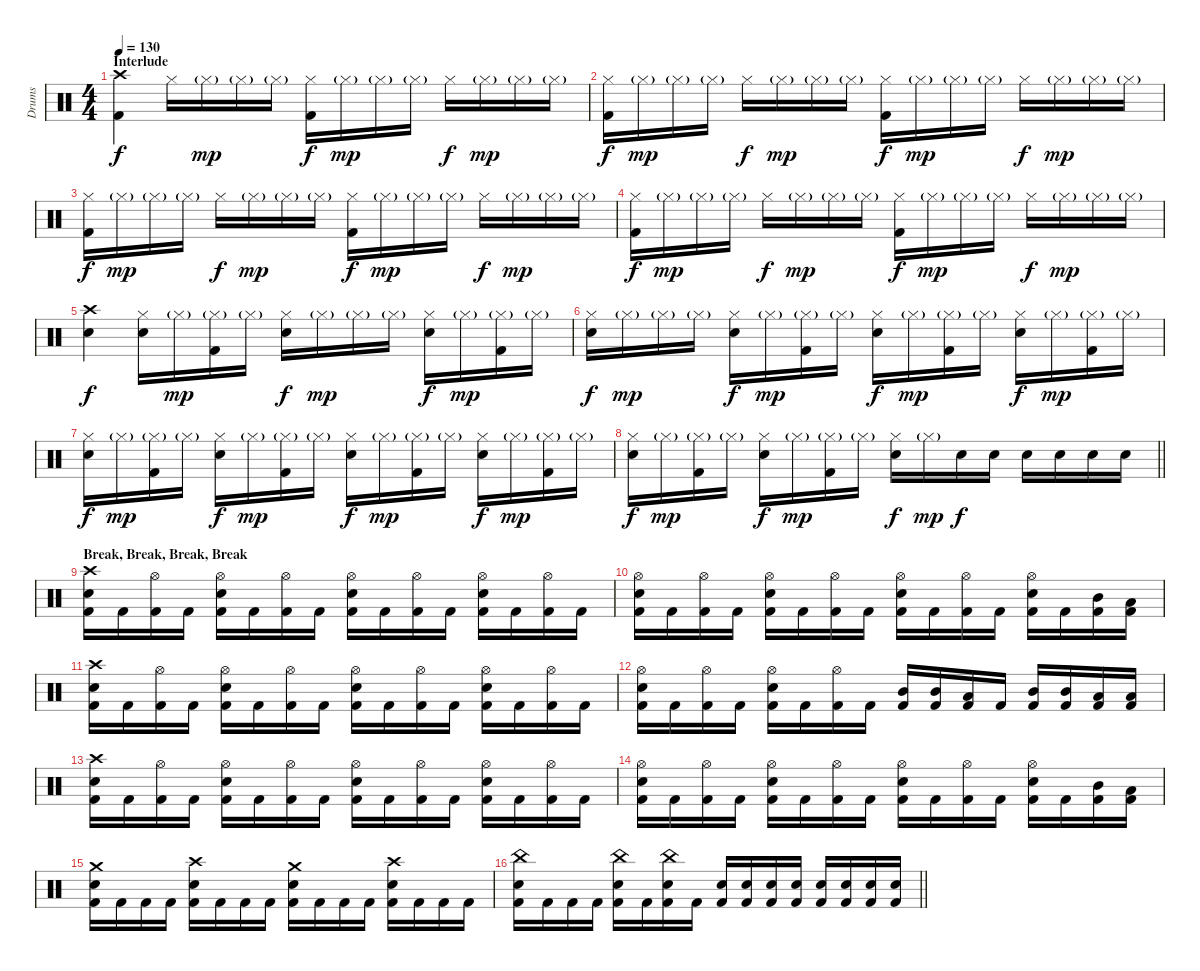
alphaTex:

\track ("Drums" "Drums") {instrument percussion}
\staff {score}
\articulation defaults
\ts (4 4)
\section ("" "Interlude")
\tempo 130
\clef neutral
\ks c
("Crash high (hit)" "Kick (hit) 2").4{dy f} "Hi-Hat (closed)".16 "Hi-Hat (closed)"{g}.16{dy mp} "Hi-Hat (closed)"{g}.16 "Hi-Hat (closed)"{g}.16 ("Hi-Hat (closed)" "Kick (hit) 2").16{dy f} "Hi-Hat (closed)"{g}.16{dy mp} "Hi-Hat (closed)"{g}.16 "Hi-Hat (closed)"{g}.16 "Hi-Hat (closed)".16{dy f} "Hi-Hat (closed)"{g}.16{dy mp} "Hi-Hat (closed)"{g}.16 "Hi-Hat (closed)"{g}.16 |
("Hi-Hat (closed)" "Kick (hit) 2").16{dy f} "Hi-Hat (closed)"{g}.16{dy mp} "Hi-Hat (closed)"{g}.16 "Hi-Hat (closed)"{g}.16 "Hi-Hat (closed)".16{dy f} "Hi-Hat (closed)"{g}.16{dy mp} "Hi-Hat (closed)"{g}.16 "Hi-Hat (closed)"{g}.16 ("Hi-Hat (closed)" "Kick (hit) 2").16{dy f} "Hi-Hat (closed)"{g}.16{dy mp} "Hi-Hat (closed)"{g}.16 "Hi-Hat (closed)"{g}.16 "Hi-Hat (closed)".16{dy f} "Hi-Hat (closed)"{g}.16{dy mp} "Hi-Hat (closed)"{g}.16 "Hi-Hat (closed)"{g}.16 |
("Hi-Hat (closed)" "Kick (hit) 2").16{dy f} "Hi-Hat (closed)"{g}.16{dy mp} "Hi-Hat (closed)"{g}.16 "Hi-Hat (closed)"{g}.16 "Hi-Hat (closed)".16{dy f} "Hi-Hat (closed)"{g}.16{dy mp} "Hi-Hat (closed)"{g}.16 "Hi-Hat (closed)"{g}.16 ("Hi-Hat (closed)" "Kick (hit) 2").16{dy f} "Hi-Hat (closed)"{g}.16{dy mp} "Hi-Hat (closed)"{g}.16 "Hi-Hat (closed)"{g}.16 "Hi-Hat (closed)".16{dy f} "Hi-Hat (closed)"{g}.16{dy mp} "Hi-Hat (closed)"{g}.16 "Hi-Hat (closed)"{g}.16 |
("Hi-Hat (closed)" "Kick (hit) 2").16{dy f} "Hi-Hat (closed)"{g}.16{dy mp} "Hi-Hat (closed)"{g}.16 "Hi-Hat (closed)"{g}.16 "Hi-Hat (closed)".16{dy f} "Hi-Hat (closed)"{g}.16{dy mp} "Hi-Hat (closed)"{g}.16 "Hi-Hat (closed)"{g}.16 ("Hi-Hat (closed)" "Kick (hit) 2").16{dy f} "Hi-Hat (closed)"{g}.16{dy mp} "Hi-Hat (closed)"{g}.16 "Hi-Hat (closed)"{g}.16 "Hi-Hat (closed)".16{dy f} "Hi-Hat (closed)"{g}.16{dy mp} "Hi-Hat (closed)"{g}.16 "Hi-Hat (closed)"{g}.16 |
("Crash high (hit)" "Snare (hit) 2").4{dy f} ("Hi-Hat (closed)" "Snare (hit) 2").16 "Hi-Hat (closed)"{g}.16{dy mp} ("Hi-Hat (closed)"{g} "Kick (hit) 2").16 "Hi-Hat (closed)"{g}.16 ("Hi-Hat (closed)" "Snare (hit) 2").16{dy f} "Hi-Hat (closed)"{g}.16{dy mp} "Hi-Hat (closed)"{g}.16 "Hi-Hat (closed)"{g}.16 ("Hi-Hat (closed)" "Snare (hit) 2").16{dy f} "Hi-Hat (closed)"{g}.16{dy mp} ("Hi-Hat (closed)"{g} "Kick (hit) 2").16 "Hi-Hat (closed)"{g}.16 |
("Hi-Hat (closed)" "Snare (hit) 2").16{dy f} "Hi-Hat (closed)"{g}.16{dy mp} "Hi-Hat (closed)"{g}.16 "Hi-Hat (closed)"{g}.16 ("Hi-Hat (closed)" "Snare (hit) 2").16{dy f} "Hi-Hat (closed)"{g}.16{dy mp} ("Hi-Hat (closed)"{g} "Kick (hit) 2").16 "Hi-Hat (closed)"{g}.16 ("Hi-Hat (closed)" "Snare (hit) 2").16{dy f} "Hi-Hat (closed)"{g}.16{dy mp} ("Hi-Hat (closed)"{g} "Kick (hit) 2").16 "Hi-Hat (closed)"{g}.16 ("Hi-Hat (closed)" "Snare (hit) 2").16{dy f} "Hi-Hat (closed)"{g}.16{dy mp} ("Hi-Hat (closed)"{g} "Kick (hit) 2").16 "Hi-Hat (closed)"{g}.16 |
("Hi-Hat (closed)" "Snare (hit) 2").16{dy f} "Hi-Hat (closed)"{g}.16{dy mp} ("Hi-Hat (closed)"{g} "Kick (hit) 2").16 "Hi-Hat (closed)"{g}.16 ("Hi-Hat (closed)" "Snare (hit) 2").16{dy f} "Hi-Hat (closed)"{g}.16{dy mp} ("Hi-Hat (closed)"{g} "Kick (hit) 2").16 "Hi-Hat (closed)"{g}.16 ("Hi-Hat (closed)" "Snare (hit) 2").16{dy f} "Hi-Hat (closed)"{g}.16{dy mp} ("Hi-Hat (closed)"{g} "Kick (hit) 2").16 "Hi-Hat (closed)"{g}.16 ("Hi-Hat (closed)" "Snare (hit) 2").16{dy f} "Hi-Hat (closed)"{g}.16{dy mp} ("Hi-Hat (closed)"{g} "Kick (hit) 2").16 "Hi-Hat (closed)"{g}.16 |
\barLineRight lightlight
("Hi-Hat (closed)" "Snare (hit) 2").16{dy f} "Hi-Hat (closed)"{g}.16{dy mp} ("Hi-Hat (closed)"{g} "Kick (hit) 2").16 "Hi-Hat (closed)"{g}.16 ("Hi-Hat (closed)" "Snare (hit) 2").16{dy f} "Hi-Hat (closed)"{g}.16{dy mp} ("Hi-Hat (closed)"{g} "Kick (hit) 2").16 "Hi-Hat (closed)"{g}.16 ("Hi-Hat (closed)" "Snare (hit) 2").16{dy f} "Hi-Hat (closed)"{g}.16{dy mp} "Snare (hit) 2".16{dy f} "Snare (hit) 2".16 "Snare (hit) 2".16 "Snare (hit) 2".16 "Snare (hit) 2".16 "Snare (hit) 2".16 |
\section ("" "Break, Break, Break, Break")
("Crash high (hit)" "Snare (hit) 2" "Kick (hit) 2").16 "Kick (hit) 2".16 ("Hi-Hat (open)" "Kick (hit) 2").16 "Kick (hit) 2".16 ("Hi-Hat (open)" "Snare (hit) 2" "Kick (hit) 2").16 "Kick (hit) 2".16 ("Hi-Hat (open)" "Kick (hit) 2").16 "Kick (hit) 2".16 ("Hi-Hat (open)" "Snare (hit) 2" "Kick (hit) 2").16 "Kick (hit) 2".16 ("Hi-Hat (open)" "Kick (hit) 2").16 "Kick (hit) 2".16 ("Hi-Hat (open)" "Snare (hit) 2" "Kick (hit) 2").16 "Kick (hit) 2".16 ("Hi-Hat (open)" "Kick (hit) 2").16 "Kick (hit) 2".16 |
("Hi-Hat (open)" "Snare (hit) 2" "Kick (hit) 2").16 "Kick (hit) 2".16 ("Hi-Hat (open)" "Kick (hit) 2").16 "Kick (hit) 2".16 ("Hi-Hat (open)" "Snare (hit) 2" "Kick (hit) 2").16 "Kick (hit) 2".16 ("Hi-Hat (open)" "Kick (hit) 2").16 "Kick (hit) 2".16 ("Hi-Hat (open)" "Snare (hit) 2" "Kick (hit) 2").16 "Kick (hit) 2".16 ("Hi-Hat (open)" "Kick (hit) 2").16 "Kick (hit) 2".16 ("Hi-Hat (open)" "Snare (hit) 2" "Kick (hit) 2").16 "Kick (hit) 2".16 ("Mid Tom (hit)" "Kick (hit) 2").16 ("Low Tom (hit)" "Kick (hit) 2").16 |
("Crash high (hit)" "Snare (hit) 2" "Kick (hit) 2").16 "Kick (hit) 2".16 ("Hi-Hat (open)" "Kick (hit) 2").16 "Kick (hit) 2".16 ("Hi-Hat (open)" "Snare (hit) 2" "Kick (hit) 2").16 "Kick (hit) 2".16 ("Hi-Hat (open)" "Kick (hit) 2").16 "Kick (hit) 2".16 ("Hi-Hat (open)" "Snare (hit) 2" "Kick (hit) 2").16 "Kick (hit) 2".16 ("Hi-Hat (open)" "Kick (hit) 2").16 "Kick (hit) 2".16 ("Hi-Hat (open)" "Snare (hit) 2" "Kick (hit) 2").16 "Kick (hit) 2".16 ("Hi-Hat (open)" "Kick (hit) 2").16 "Kick (hit) 2".16 |
("Hi-Hat (open)" "Snare (hit) 2" "Kick (hit) 2").16 "Kick (hit) 2".16 ("Hi-Hat (open)" "Kick (hit) 2").16 "Kick (hit) 2".16 ("Hi-Hat (open)" "Snare (hit) 2" "Kick (hit) 2").16 "Kick (hit) 2".16 ("Hi-Hat (open)" "Kick (hit) 2").16 "Kick (hit) 2".16 ("Mid Tom (hit)" "Kick (hit) 2").16 ("Mid Tom (hit)" "Kick (hit) 2").16 ("Low Tom (hit)" "Kick (hit) 2").16 "Kick (hit) 2".16 ("Mid Tom (hit)" "Kick (hit) 2").16 ("Mid Tom (hit)" "Kick (hit) 2").16 ("Low Tom (hit)" "Kick (hit) 2").16 ("Low Tom (hit)" "Kick (hit) 2").16 |
("Crash high (hit)" "Snare (hit) 2" "Kick (hit) 2").16 "Kick (hit) 2".16 ("Hi-Hat (open)" "Kick (hit) 2").16 "Kick (hit) 2".16 ("Hi-Hat (open)" "Snare (hit) 2" "Kick (hit) 2").16 "Kick (hit) 2".16 ("Hi-Hat (open)" "Kick (hit) 2").16 "Kick (hit) 2".16 ("Hi-Hat (open)" "Snare (hit) 2" "Kick (hit) 2").16 "Kick (hit) 2".16 ("Hi-Hat (open)" "Kick (hit) 2").16 "Kick (hit) 2".16 ("Hi-Hat (open)" "Snare (hit) 2" "Kick (hit) 2").16 "Kick (hit) 2".16 ("Hi-Hat (open)" "Kick (hit) 2").16 "Kick (hit) 2".16 |
("Hi-Hat (open)" "Snare (hit) 2" "Kick (hit) 2").16 "Kick (hit) 2".16 ("Hi-Hat (open)" "Kick (hit) 2").16 "Kick (hit) 2".16 ("Hi-Hat (open)" "Snare (hit) 2" "Kick (hit) 2").16 "Kick (hit) 2".16 ("Hi-Hat (open)" "Kick (hit) 2").16 "Kick (hit) 2".16 ("Hi-Hat (open)" "Snare (hit) 2" "Kick (hit) 2").16 "Kick (hit) 2".16 ("Hi-Hat (open)" "Kick (hit) 2").16 "Kick (hit) 2".16 ("Hi-Hat (open)" "Snare (hit) 2" "Kick (hit) 2").16 "Kick (hit) 2".16 ("Mid Tom (hit)" "Kick (hit) 2").16 ("Low Tom (hit)" "Kick (hit) 2").16 |
("Crash medium (hit)" "Snare (hit) 2" "Kick (hit) 2").16 "Kick (hit) 2".16 "Kick (hit) 2".16 "Kick (hit) 2".16 ("Crash high (hit)" "Snare (hit) 2" "Kick (hit) 2").16 "Kick (hit) 2".16 "Kick (hit) 2".16 "Kick (hit) 2".16 ("Crash medium (hit)" "Snare (hit) 2" "Kick (hit) 2").16 "Kick (hit) 2".16 "Kick (hit) 2".16 "Kick (hit) 2".16 ("Crash high (hit)" "Snare (hit) 2" "Kick (hit) 2").16 "Kick (hit) 2".16 "Kick (hit) 2".16 "Kick (hit) 2".16 |
\barLineRight lightlight
("China (hit)" "Snare (hit) 2" "Kick (hit) 2").16 "Kick (hit) 2".16 "Kick (hit) 2".16 "Kick (hit) 2".16 ("China (hit)" "Snare (hit) 2" "Kick (hit) 2").16 "Kick (hit) 2".16 ("China (hit)" "Snare (hit) 2" "Kick (hit) 2").16 "Kick (hit) 2".16 ("Snare (hit) 2" "Kick (hit) 2").16 ("Snare (hit) 2" "Kick (hit) 2").16 ("Snare (hit) 2" "Kick (hit) 2").16 ("Snare (hit) 2" "Kick (hit) 2").16 ("Snare (hit) 2" "Kick (hit) 2").16 ("Snare (hit) 2" "Kick (hit) 2").16 ("Snare (hit) 2" "Kick (hit) 2").16 ("Snare (hit) 2" "Kick (hit) 2").16
